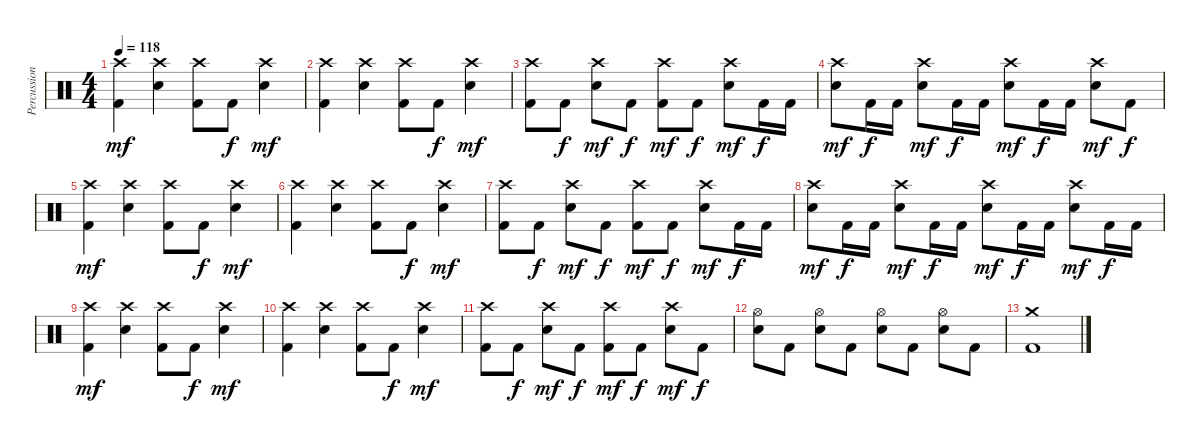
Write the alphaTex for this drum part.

\track ("Percussion" "Percussion") {instrument percussion}
\staff {score}
\articulation defaults
\ts (4 4)
\tempo 118
\clef neutral
\ks c
("Kick (hit) 2" "Crash high (hit)").4{dy mf} ("Electric Snare (hit)" "Crash high (hit)").4 ("Kick (hit) 2" "Crash high (hit)").8 "Kick (hit) 2".8{dy f} ("Electric Snare (hit)" "Crash high (hit)").4{dy mf} |
("Kick (hit) 2" "Crash high (hit)").4 ("Electric Snare (hit)" "Crash high (hit)").4 ("Kick (hit) 2" "Crash high (hit)").8 "Kick (hit) 2".8{dy f} ("Electric Snare (hit)" "Crash high (hit)").4{dy mf} |
("Kick (hit) 2" "Crash high (hit)").8 "Kick (hit) 2".8{dy f} ("Electric Snare (hit)" "Crash high (hit)").8{dy mf} "Kick (hit) 2".8{dy f} ("Kick (hit) 2" "Crash high (hit)").8{dy mf} "Kick (hit) 2".8{dy f} ("Electric Snare (hit)" "Crash high (hit)").8{dy mf} "Kick (hit) 2".16{dy f} "Kick (hit) 2".16 |
("Electric Snare (hit)" "Crash high (hit)").8{dy mf} "Kick (hit) 2".16{dy f} "Kick (hit) 2".16 ("Electric Snare (hit)" "Crash high (hit)").8{dy mf} "Kick (hit) 2".16{dy f} "Kick (hit) 2".16 ("Electric Snare (hit)" "Crash high (hit)").8{dy mf} "Kick (hit) 2".16{dy f} "Kick (hit) 2".16 ("Electric Snare (hit)" "Crash high (hit)").8{dy mf} "Kick (hit) 2".8{dy f} |
("Kick (hit) 2" "Crash high (hit)").4{dy mf} ("Electric Snare (hit)" "Crash high (hit)").4 ("Kick (hit) 2" "Crash high (hit)").8 "Kick (hit) 2".8{dy f} ("Electric Snare (hit)" "Crash high (hit)").4{dy mf} |
("Kick (hit) 2" "Crash high (hit)").4 ("Electric Snare (hit)" "Crash high (hit)").4 ("Kick (hit) 2" "Crash high (hit)").8 "Kick (hit) 2".8{dy f} ("Electric Snare (hit)" "Crash high (hit)").4{dy mf} |
("Kick (hit) 2" "Crash high (hit)").8 "Kick (hit) 2".8{dy f} ("Electric Snare (hit)" "Crash high (hit)").8{dy mf} "Kick (hit) 2".8{dy f} ("Kick (hit) 2" "Crash high (hit)").8{dy mf} "Kick (hit) 2".8{dy f} ("Electric Snare (hit)" "Crash high (hit)").8{dy mf} "Kick (hit) 2".16{dy f} "Kick (hit) 2".16 |
("Electric Snare (hit)" "Crash high (hit)").8{dy mf} "Kick (hit) 2".16{dy f} "Kick (hit) 2".16 ("Electric Snare (hit)" "Crash high (hit)").8{dy mf} "Kick (hit) 2".16{dy f} "Kick (hit) 2".16 ("Electric Snare (hit)" "Crash high (hit)").8{dy mf} "Kick (hit) 2".16{dy f} "Kick (hit) 2".16 ("Electric Snare (hit)" "Crash high (hit)").8{dy mf} "Kick (hit) 2".16{dy f} "Kick (hit) 2".16 |
("Kick (hit) 2" "Crash high (hit)").4{dy mf} ("Electric Snare (hit)" "Crash high (hit)").4 ("Kick (hit) 2" "Crash high (hit)").8 "Kick (hit) 2".8{dy f} ("Electric Snare (hit)" "Crash high (hit)").4{dy mf} |
("Kick (hit) 2" "Crash high (hit)").4 ("Electric Snare (hit)" "Crash high (hit)").4 ("Kick (hit) 2" "Crash high (hit)").8 "Kick (hit) 2".8{dy f} ("Electric Snare (hit)" "Crash high (hit)").4{dy mf} |
("Kick (hit) 2" "Crash high (hit)").8 "Kick (hit) 2".8{dy f} ("Electric Snare (hit)" "Crash high (hit)").8{dy mf} "Kick (hit) 2".8{dy f} ("Kick (hit) 2" "Crash high (hit)").8{dy mf} "Kick (hit) 2".8{dy f} ("Electric Snare (hit)" "Crash high (hit)").8{dy mf} "Kick (hit) 2".8{dy f} |
("Electric Snare (hit)" "Hi-Hat (open)").8 "Kick (hit) 2".8 ("Electric Snare (hit)" "Hi-Hat (open)").8 "Kick (hit) 2".8 ("Electric Snare (hit)" "Hi-Hat (open)").8 "Kick (hit) 2".8 ("Electric Snare (hit)" "Hi-Hat (open)").8 "Kick (hit) 2".8 |
("Kick (hit) 2" "Crash medium (hit)").1
